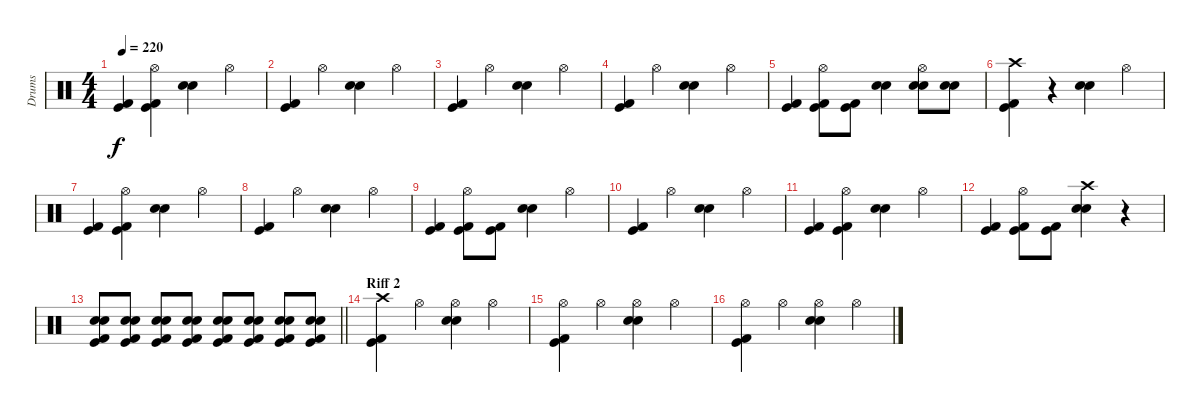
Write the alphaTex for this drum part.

\track ("Drums" "Drums") {instrument percussion}
\staff {score}
\articulation defaults
\ts (4 4)
\tempo 220
\clef neutral
\ks c
("Kick (hit) 2" "Kick (hit)").4{dy f} ("Hi-Hat (open)" "Kick (hit) 2" "Kick (hit)").4 ("Electric Snare (hit)" "Snare (hit) 2").4 "Hi-Hat (open)".4 |
("Kick (hit) 2" "Kick (hit)").4 "Hi-Hat (open)".4 ("Electric Snare (hit)" "Snare (hit) 2").4 "Hi-Hat (open)".4 |
("Kick (hit) 2" "Kick (hit)").4 "Hi-Hat (open)".4 ("Electric Snare (hit)" "Snare (hit) 2").4 "Hi-Hat (open)".4 |
("Kick (hit) 2" "Kick (hit)").4 "Hi-Hat (open)".4 ("Electric Snare (hit)" "Snare (hit) 2").4 "Hi-Hat (open)".4 |
("Kick (hit) 2" "Kick (hit)").4 ("Hi-Hat (open)" "Kick (hit) 2" "Kick (hit)").8 ("Kick (hit) 2" "Kick (hit)").8 ("Electric Snare (hit)" "Snare (hit) 2").4 ("Hi-Hat (open)" "Electric Snare (hit)" "Snare (hit) 2").8 ("Electric Snare (hit)" "Snare (hit) 2").8 |
("Crash high (hit)" "Kick (hit) 2" "Kick (hit)").4 r.4 ("Electric Snare (hit)" "Snare (hit) 2").4 "Hi-Hat (open)".4 |
("Kick (hit) 2" "Kick (hit)").4 ("Hi-Hat (open)" "Kick (hit) 2" "Kick (hit)").4 ("Electric Snare (hit)" "Snare (hit) 2").4 "Hi-Hat (open)".4 |
("Kick (hit) 2" "Kick (hit)").4 "Hi-Hat (open)".4 ("Electric Snare (hit)" "Snare (hit) 2").4 "Hi-Hat (open)".4 |
("Kick (hit) 2" "Kick (hit)").4 ("Hi-Hat (open)" "Kick (hit) 2" "Kick (hit)").8 ("Kick (hit) 2" "Kick (hit)").8 ("Electric Snare (hit)" "Snare (hit) 2").4 "Hi-Hat (open)".4 |
("Kick (hit) 2" "Kick (hit)").4 "Hi-Hat (open)".4 ("Electric Snare (hit)" "Snare (hit) 2").4 "Hi-Hat (open)".4 |
("Kick (hit) 2" "Kick (hit)").4 ("Hi-Hat (open)" "Kick (hit) 2" "Kick (hit)").4 ("Electric Snare (hit)" "Snare (hit) 2").4 "Hi-Hat (open)".4 |
("Kick (hit) 2" "Kick (hit)").4 ("Hi-Hat (open)" "Kick (hit) 2" "Kick (hit)").8 ("Kick (hit) 2" "Kick (hit)").8 ("Crash high (hit)" "Electric Snare (hit)" "Snare (hit) 2").4 r.4 |
\barLineRight lightlight
("Electric Snare (hit)" "Snare (hit) 2" "Kick (hit) 2" "Kick (hit)").8 ("Electric Snare (hit)" "Snare (hit) 2" "Kick (hit) 2" "Kick (hit)").8 ("Electric Snare (hit)" "Snare (hit) 2" "Kick (hit) 2" "Kick (hit)").8 ("Electric Snare (hit)" "Snare (hit) 2" "Kick (hit) 2" "Kick (hit)").8 ("Electric Snare (hit)" "Snare (hit) 2" "Kick (hit) 2" "Kick (hit)").8 ("Electric Snare (hit)" "Snare (hit) 2" "Kick (hit) 2" "Kick (hit)").8 ("Electric Snare (hit)" "Snare (hit) 2" "Kick (hit) 2" "Kick (hit)").8 ("Electric Snare (hit)" "Snare (hit) 2" "Kick (hit) 2" "Kick (hit)").8 |
\section ("" "Riff 2")
("Crash high (hit)" "Kick (hit) 2" "Kick (hit)").4 "Hi-Hat (open)".4 ("Hi-Hat (open)" "Electric Snare (hit)" "Snare (hit) 2").4 "Hi-Hat (open)".4 |
("Hi-Hat (open)" "Kick (hit) 2" "Kick (hit)").4 "Hi-Hat (open)".4 ("Hi-Hat (open)" "Electric Snare (hit)" "Snare (hit) 2").4 "Hi-Hat (open)".4 |
("Hi-Hat (open)" "Kick (hit) 2" "Kick (hit)").4 "Hi-Hat (open)".4 ("Hi-Hat (open)" "Electric Snare (hit)" "Snare (hit) 2").4 "Hi-Hat (open)".4
